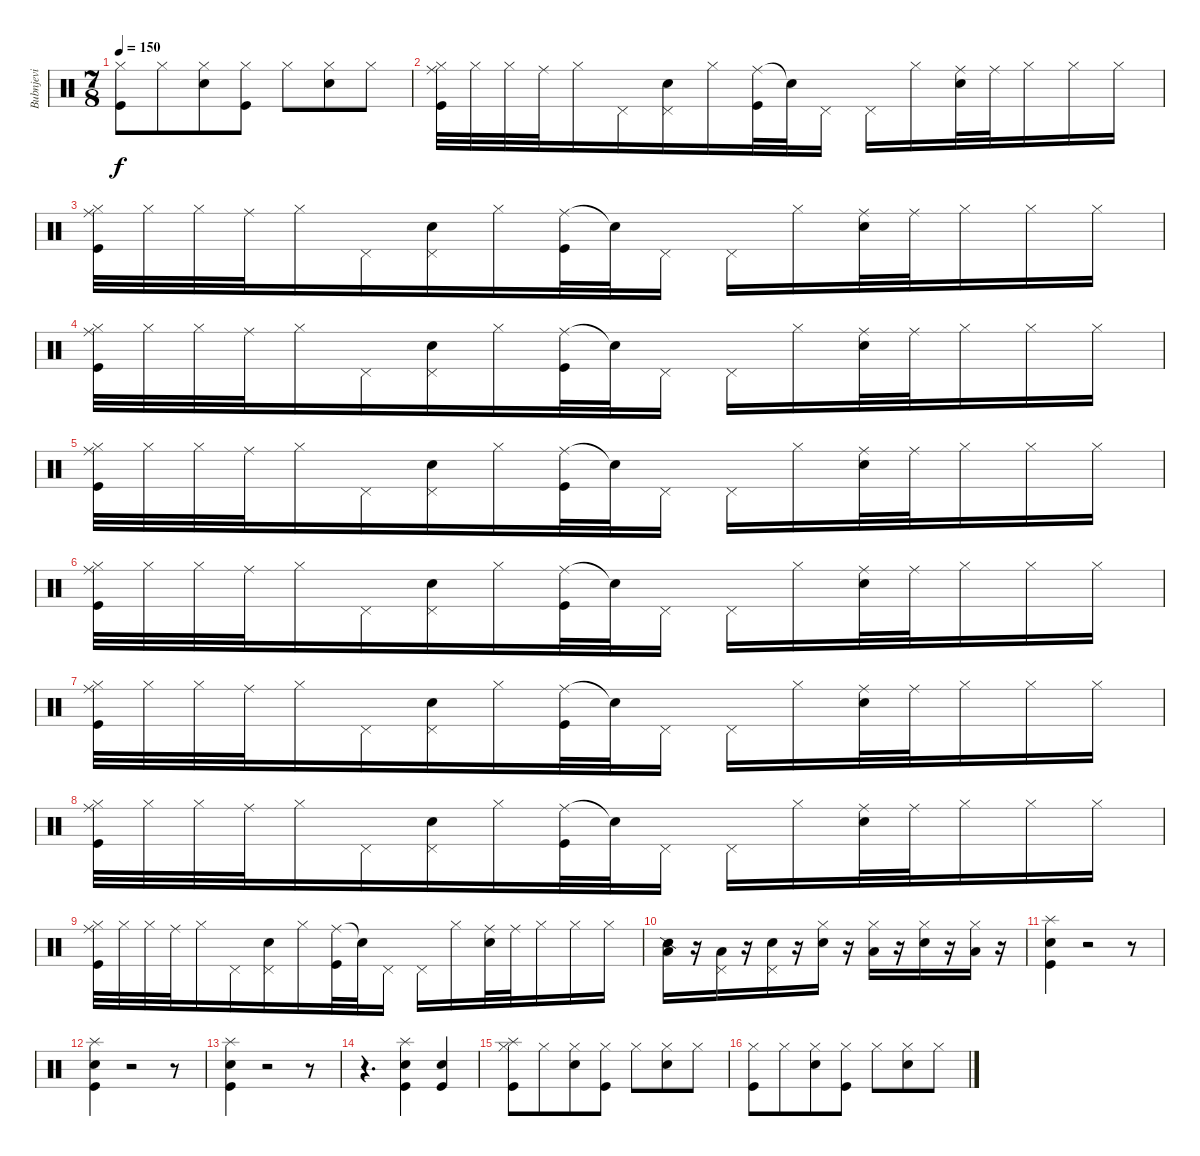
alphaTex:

\track ("Bubnjevi" "Bubnjevi") {instrument percussion}
\staff {score}
\articulation defaults
\ts (7 8)
\tempo 150
\clef neutral
\ks c
("Kick (hit)" "Hi-Hat (closed)").8{dy f} "Hi-Hat (closed)".8 ("Snare (hit) 2" "Hi-Hat (closed)").8 ("Kick (hit)" "Hi-Hat (closed)").8 "Hi-Hat (closed)".8 ("Snare (hit) 2" "Hi-Hat (closed)").8 "Hi-Hat (closed)".8 |
("Hi-Hat (closed)" "Ride (middle)" "Kick (hit)").32 "Hi-Hat (closed)".32 "Hi-Hat (closed)".32 "Ride (middle)".32 "Hi-Hat (closed)".16 "Pedal Hi-Hat (hit)".16 ("Pedal Hi-Hat (hit)" "Snare (hit) 2").16 "Hi-Hat (closed)".16 ("Ride (middle)" "Kick (hit)").32 "Snare (hit)"{t}.32 "Pedal Hi-Hat (hit)".16 "Pedal Hi-Hat (hit)".16 "Hi-Hat (closed)".16 ("Ride (middle)" "Snare (hit) 2").32 "Ride (middle)".32 "Hi-Hat (closed)".16 "Hi-Hat (closed)".16 "Hi-Hat (closed)".16 |
("Hi-Hat (closed)" "Ride (middle)" "Kick (hit)").32 "Hi-Hat (closed)".32 "Hi-Hat (closed)".32 "Ride (middle)".32 "Hi-Hat (closed)".16 "Pedal Hi-Hat (hit)".16 ("Pedal Hi-Hat (hit)" "Snare (hit) 2").16 "Hi-Hat (closed)".16 ("Ride (middle)" "Kick (hit)").32 "Snare (hit)"{t}.32 "Pedal Hi-Hat (hit)".16 "Pedal Hi-Hat (hit)".16 "Hi-Hat (closed)".16 ("Ride (middle)" "Snare (hit) 2").32 "Ride (middle)".32 "Hi-Hat (closed)".16 "Hi-Hat (closed)".16 "Hi-Hat (closed)".16 |
("Hi-Hat (closed)" "Ride (middle)" "Kick (hit)").32 "Hi-Hat (closed)".32 "Hi-Hat (closed)".32 "Ride (middle)".32 "Hi-Hat (closed)".16 "Pedal Hi-Hat (hit)".16 ("Pedal Hi-Hat (hit)" "Snare (hit) 2").16 "Hi-Hat (closed)".16 ("Ride (middle)" "Kick (hit)").32 "Snare (hit)"{t}.32 "Pedal Hi-Hat (hit)".16 "Pedal Hi-Hat (hit)".16 "Hi-Hat (closed)".16 ("Ride (middle)" "Snare (hit) 2").32 "Ride (middle)".32 "Hi-Hat (closed)".16 "Hi-Hat (closed)".16 "Hi-Hat (closed)".16 |
("Hi-Hat (closed)" "Ride (middle)" "Kick (hit)").32 "Hi-Hat (closed)".32 "Hi-Hat (closed)".32 "Ride (middle)".32 "Hi-Hat (closed)".16 "Pedal Hi-Hat (hit)".16 ("Pedal Hi-Hat (hit)" "Snare (hit) 2").16 "Hi-Hat (closed)".16 ("Ride (middle)" "Kick (hit)").32 "Snare (hit)"{t}.32 "Pedal Hi-Hat (hit)".16 "Pedal Hi-Hat (hit)".16 "Hi-Hat (closed)".16 ("Ride (middle)" "Snare (hit) 2").32 "Ride (middle)".32 "Hi-Hat (closed)".16 "Hi-Hat (closed)".16 "Hi-Hat (closed)".16 |
("Hi-Hat (closed)" "Ride (middle)" "Kick (hit)").32 "Hi-Hat (closed)".32 "Hi-Hat (closed)".32 "Ride (middle)".32 "Hi-Hat (closed)".16 "Pedal Hi-Hat (hit)".16 ("Pedal Hi-Hat (hit)" "Snare (hit) 2").16 "Hi-Hat (closed)".16 ("Ride (middle)" "Kick (hit)").32 "Snare (hit)"{t}.32 "Pedal Hi-Hat (hit)".16 "Pedal Hi-Hat (hit)".16 "Hi-Hat (closed)".16 ("Ride (middle)" "Snare (hit) 2").32 "Ride (middle)".32 "Hi-Hat (closed)".16 "Hi-Hat (closed)".16 "Hi-Hat (closed)".16 |
("Hi-Hat (closed)" "Ride (middle)" "Kick (hit)").32 "Hi-Hat (closed)".32 "Hi-Hat (closed)".32 "Ride (middle)".32 "Hi-Hat (closed)".16 "Pedal Hi-Hat (hit)".16 ("Pedal Hi-Hat (hit)" "Snare (hit) 2").16 "Hi-Hat (closed)".16 ("Ride (middle)" "Kick (hit)").32 "Snare (hit)"{t}.32 "Pedal Hi-Hat (hit)".16 "Pedal Hi-Hat (hit)".16 "Hi-Hat (closed)".16 ("Ride (middle)" "Snare (hit) 2").32 "Ride (middle)".32 "Hi-Hat (closed)".16 "Hi-Hat (closed)".16 "Hi-Hat (closed)".16 |
("Hi-Hat (closed)" "Ride (middle)" "Kick (hit)").32 "Hi-Hat (closed)".32 "Hi-Hat (closed)".32 "Ride (middle)".32 "Hi-Hat (closed)".16 "Pedal Hi-Hat (hit)".16 ("Pedal Hi-Hat (hit)" "Snare (hit) 2").16 "Hi-Hat (closed)".16 ("Ride (middle)" "Kick (hit)").32 "Snare (hit)"{t}.32 "Pedal Hi-Hat (hit)".16 "Pedal Hi-Hat (hit)".16 "Hi-Hat (closed)".16 ("Ride (middle)" "Snare (hit) 2").32 "Ride (middle)".32 "Hi-Hat (closed)".16 "Hi-Hat (closed)".16 "Hi-Hat (closed)".16 |
("Hi-Hat (closed)" "Ride (middle)" "Kick (hit)").32 "Hi-Hat (closed)".32 "Hi-Hat (closed)".32 "Ride (middle)".32 "Hi-Hat (closed)".16 "Pedal Hi-Hat (hit)".16 ("Pedal Hi-Hat (hit)" "Snare (hit) 2").16 "Hi-Hat (closed)".16 ("Ride (middle)" "Kick (hit)").32 "Snare (hit)"{t}.32 "Pedal Hi-Hat (hit)".16 "Pedal Hi-Hat (hit)".16 "Hi-Hat (closed)".16 ("Ride (middle)" "Snare (hit) 2").32 "Ride (middle)".32 "Hi-Hat (closed)".16 "Hi-Hat (closed)".16 "Hi-Hat (closed)".16 |
("Low Tom (hit)" "Snare (side stick) 2").16 r.16 ("Pedal Hi-Hat (hit)" "Low Tom (hit)").16 r.16 ("Pedal Hi-Hat (hit)" "Snare (hit) 2").16 r.16 ("Hi-Hat (closed)" "Snare (hit) 2").16 r.16 ("Hi-Hat (closed)" "Low Tom (hit)").16 r.16 ("Hi-Hat (closed)" "Snare (hit) 2").16 r.16 ("Hi-Hat (closed)" "Low Tom (hit)").16 r.16 |
("Splash (hit)" "Snare (hit) 2" "Kick (hit)").4 r.2 r.8 |
("Splash (hit)" "Snare (hit) 2" "Kick (hit)").4 r.2 r.8 |
("Splash (hit)" "Snare (hit) 2" "Kick (hit)").4 r.2 r.8 |
r.4{d} ("Splash (hit)" "Snare (hit) 2" "Kick (hit)").4 ("Snare (hit) 2" "Kick (hit)").4 |
("Splash (hit)" "Kick (hit)" "Hi-Hat (closed)").8 "Hi-Hat (closed)".8 ("Snare (hit) 2" "Hi-Hat (closed)").8 ("Kick (hit)" "Hi-Hat (closed)").8 "Hi-Hat (closed)".8 ("Snare (hit) 2" "Hi-Hat (closed)").8 "Hi-Hat (closed)".8 |
("Kick (hit)" "Hi-Hat (closed)").8 "Hi-Hat (closed)".8 ("Snare (hit) 2" "Hi-Hat (closed)").8 ("Kick (hit)" "Hi-Hat (closed)").8 "Hi-Hat (closed)".8 ("Snare (hit) 2" "Hi-Hat (closed)").8 "Hi-Hat (closed)".8
